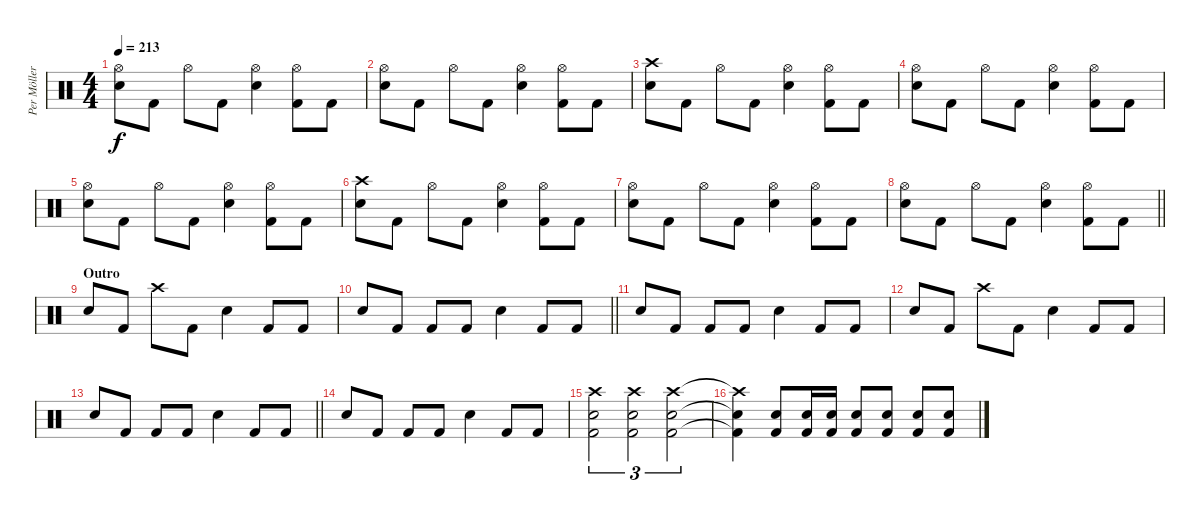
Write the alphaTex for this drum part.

\track ("Per Möller Jensen" "Per Möller") {instrument percussion}
\staff {score}
\articulation defaults
\ts (4 4)
\tempo 213
\clef neutral
\ks c
("Hi-Hat (open)" "Electric Snare (hit)").8{dy f} "Kick (hit) 2".8 "Hi-Hat (open)".8 "Kick (hit) 2".8 ("Hi-Hat (open)" "Electric Snare (hit)").4 ("Hi-Hat (open)" "Kick (hit) 2").8 "Kick (hit) 2".8 |
("Hi-Hat (open)" "Electric Snare (hit)").8 "Kick (hit) 2".8 "Hi-Hat (open)".8 "Kick (hit) 2".8 ("Hi-Hat (open)" "Electric Snare (hit)").4 ("Hi-Hat (open)" "Kick (hit) 2").8 "Kick (hit) 2".8 |
("Crash high (hit)" "Electric Snare (hit)").8 "Kick (hit) 2".8 "Hi-Hat (open)".8 "Kick (hit) 2".8 ("Hi-Hat (open)" "Electric Snare (hit)").4 ("Hi-Hat (open)" "Kick (hit) 2").8 "Kick (hit) 2".8 |
("Hi-Hat (open)" "Electric Snare (hit)").8 "Kick (hit) 2".8 "Hi-Hat (open)".8 "Kick (hit) 2".8 ("Hi-Hat (open)" "Electric Snare (hit)").4 ("Hi-Hat (open)" "Kick (hit) 2").8 "Kick (hit) 2".8 |
("Hi-Hat (open)" "Electric Snare (hit)").8 "Kick (hit) 2".8 "Hi-Hat (open)".8 "Kick (hit) 2".8 ("Hi-Hat (open)" "Electric Snare (hit)").4 ("Hi-Hat (open)" "Kick (hit) 2").8 "Kick (hit) 2".8 |
("Crash high (hit)" "Electric Snare (hit)").8 "Kick (hit) 2".8 "Hi-Hat (open)".8 "Kick (hit) 2".8 ("Hi-Hat (open)" "Electric Snare (hit)").4 ("Hi-Hat (open)" "Kick (hit) 2").8 "Kick (hit) 2".8 |
("Hi-Hat (open)" "Electric Snare (hit)").8 "Kick (hit) 2".8 "Hi-Hat (open)".8 "Kick (hit) 2".8 ("Hi-Hat (open)" "Electric Snare (hit)").4 ("Hi-Hat (open)" "Kick (hit) 2").8 "Kick (hit) 2".8 |
\barLineRight lightlight
("Hi-Hat (open)" "Electric Snare (hit)").8 "Kick (hit) 2".8 "Hi-Hat (open)".8 "Kick (hit) 2".8 ("Hi-Hat (open)" "Electric Snare (hit)").4 ("Hi-Hat (open)" "Kick (hit) 2").8 "Kick (hit) 2".8 |
\section ("" "Outro")
"Electric Snare (hit)".8 "Kick (hit) 2".8 "Crash high (hit)".8 "Kick (hit) 2".8 "Electric Snare (hit)".4 "Kick (hit) 2".8 "Kick (hit) 2".8 |
\barLineRight lightlight "Electric Snare (hit)".8 "Kick (hit) 2".8 "Kick (hit) 2".8 "Kick (hit) 2".8 "Electric Snare (hit)".4 "Kick (hit) 2".8 "Kick (hit) 2".8
|
\section ("" "")
"Electric Snare (hit)".8 "Kick (hit) 2".8 "Kick (hit) 2".8 "Kick (hit) 2".8 "Electric Snare (hit)".4 "Kick (hit) 2".8 "Kick (hit) 2".8 |
"Electric Snare (hit)".8 "Kick (hit) 2".8 "Crash high (hit)".8 "Kick (hit) 2".8 "Electric Snare (hit)".4 "Kick (hit) 2".8 "Kick (hit) 2".8 |
\barLineRight lightlight "Electric Snare (hit)".8 "Kick (hit) 2".8 "Kick (hit) 2".8 "Kick (hit) 2".8 "Electric Snare (hit)".4 "Kick (hit) 2".8 "Kick (hit) 2".8
|
"Electric Snare (hit)".8 "Kick (hit) 2".8 "Kick (hit) 2".8 "Kick (hit) 2".8 "Electric Snare (hit)".4 "Kick (hit) 2".8 "Kick (hit) 2".8 |
("Crash high (hit)" "Electric Snare (hit)" "Kick (hit) 2").2{tu (3 2)} ("Crash high (hit)" "Electric Snare (hit)" "Kick (hit) 2").2{tu (3 2)} ("Crash high (hit)" "Electric Snare (hit)" "Kick (hit) 2").2{tu (3 2)} |
("Crash high (hit)"{t} "Electric Snare (hit)"{t} "Kick (hit) 2"{t}).4 ("Electric Snare (hit)" "Kick (hit) 2").8 ("Electric Snare (hit)" "Kick (hit) 2").16 ("Electric Snare (hit)" "Kick (hit) 2").16 ("Electric Snare (hit)" "Kick (hit) 2").8 ("Electric Snare (hit)" "Kick (hit) 2").8 ("Electric Snare (hit)" "Kick (hit) 2").8 ("Electric Snare (hit)" "Kick (hit) 2").8
